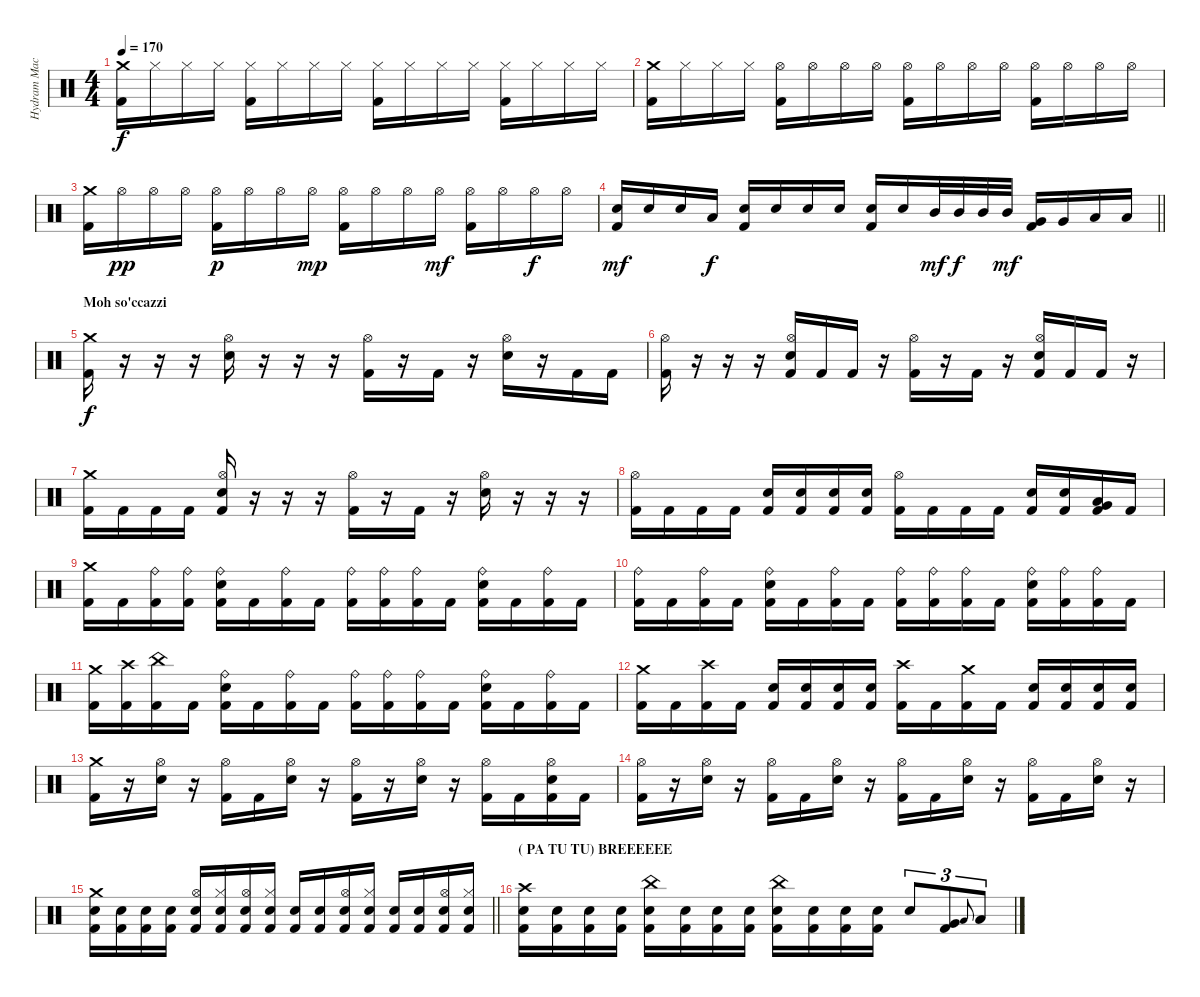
\track ("Hydram Machine" "Hydram Mac") {instrument percussion}
\staff {score}
\articulation defaults
\ts (4 4)
\tempo 170
\clef neutral
\ks c
("Crash medium (hit)" "Kick (hit) 2").16{dy f} "Hi-Hat (closed)".16 "Hi-Hat (closed)".16 "Hi-Hat (closed)".16 ("Hi-Hat (closed)" "Kick (hit) 2").16 "Hi-Hat (closed)".16 "Hi-Hat (closed)".16 "Hi-Hat (closed)".16 ("Hi-Hat (closed)" "Kick (hit) 2").16 "Hi-Hat (closed)".16 "Hi-Hat (closed)".16 "Hi-Hat (closed)".16 ("Hi-Hat (closed)" "Kick (hit) 2").16 "Hi-Hat (closed)".16 "Hi-Hat (closed)".16 "Hi-Hat (closed)".16 |
("Crash medium (hit)" "Kick (hit) 2").16 "Hi-Hat (closed)".16 "Hi-Hat (closed)".16 "Hi-Hat (closed)".16 ("Hi-Hat (open)" "Kick (hit) 2").16 "Hi-Hat (open)".16 "Hi-Hat (open)".16 "Hi-Hat (open)".16 ("Hi-Hat (open)" "Kick (hit) 2").16 "Hi-Hat (open)".16 "Hi-Hat (open)".16 "Hi-Hat (open)".16 ("Hi-Hat (open)" "Kick (hit) 2").16 "Hi-Hat (open)".16 "Hi-Hat (open)".16 "Hi-Hat (open)".16 |
("Crash medium (hit)" "Kick (hit) 2").16 "Hi-Hat (open)".16{dy pp} "Hi-Hat (open)".16 "Hi-Hat (open)".16 ("Hi-Hat (open)" "Kick (hit) 2").16{dy p} "Hi-Hat (open)".16 "Hi-Hat (open)".16 "Hi-Hat (open)".16{dy mp} ("Hi-Hat (open)" "Kick (hit) 2").16 "Hi-Hat (open)".16 "Hi-Hat (open)".16 "Hi-Hat (open)".16{dy mf} ("Hi-Hat (open)" "Kick (hit) 2").16 "Hi-Hat (open)".16 "Hi-Hat (open)".16{dy f} "Hi-Hat (open)".16 |
\barLineRight lightlight
("Electric Snare (hit)" "Kick (hit) 2").16{dy mf} "Electric Snare (hit)".16 "Electric Snare (hit)".16 "Low Tom (hit)".16{dy f} ("Electric Snare (hit)" "Kick (hit) 2").16 "Electric Snare (hit)".16 "Electric Snare (hit)".16 "Electric Snare (hit)".16 ("Electric Snare (hit)" "Kick (hit) 2").16 "Electric Snare (hit)".16 "Mid Tom (hit)".32{dy mf} "Mid Tom (hit)".32{dy f} "Mid Tom (hit)".32 "Mid Tom (hit)".32{dy mf} ("Very Low Tom (hit)" "Kick (hit) 2").16 "Very Low Tom (hit)".16 "Low Floor Tom (hit)".16 "Low Floor Tom (hit)".16 |
\section ("" "Moh so'ccazzi")
("Crash medium (hit)" "Kick (hit) 2").16{dy f} r.16 r.16 r.16 ("Hi-Hat (open)" "Electric Snare (hit)").16 r.16 r.16 r.16 ("Hi-Hat (open)" "Kick (hit) 2").16 r.16 "Kick (hit) 2".16 r.16 ("Hi-Hat (open)" "Electric Snare (hit)").16 r.16 "Kick (hit) 2".16 "Kick (hit) 2".16 |
("Hi-Hat (open)" "Kick (hit) 2").16 r.16 r.16 r.16 ("Hi-Hat (open)" "Electric Snare (hit)" "Kick (hit) 2").16 "Kick (hit) 2".16 "Kick (hit) 2".16 r.16 ("Hi-Hat (open)" "Kick (hit) 2").16 r.16 "Kick (hit) 2".16 r.16 ("Hi-Hat (open)" "Electric Snare (hit)" "Kick (hit) 2").16 "Kick (hit) 2".16 "Kick (hit) 2".16 r.16 |
("Crash medium (hit)" "Kick (hit) 2").16 "Kick (hit) 2".16 "Kick (hit) 2".16 "Kick (hit) 2".16 ("Hi-Hat (open)" "Electric Snare (hit)" "Kick (hit) 2").16 r.16 r.16 r.16 ("Hi-Hat (open)" "Kick (hit) 2").16 r.16 "Kick (hit) 2".16 r.16 ("Hi-Hat (open)" "Electric Snare (hit)").16 r.16 r.16 r.16 |
("Hi-Hat (open)" "Kick (hit) 2").16 "Kick (hit) 2".16 "Kick (hit) 2".16 "Kick (hit) 2".16 ("Electric Snare (hit)" "Kick (hit) 2").16 ("Electric Snare (hit)" "Kick (hit) 2").16 ("Electric Snare (hit)" "Kick (hit) 2").16 ("Electric Snare (hit)" "Kick (hit) 2").16 ("Hi-Hat (open)" "Kick (hit) 2").16 "Kick (hit) 2".16 "Kick (hit) 2".16 "Kick (hit) 2".16 ("Electric Snare (hit)" "Kick (hit) 2").16 ("Electric Snare (hit)" "Kick (hit) 2").16 ("Low Floor Tom (hit)" "Very Low Tom (hit)" "Kick (hit) 2").16 "Kick (hit) 2".16 |
("Crash medium (hit)" "Kick (hit) 2").16 "Kick (hit) 2".16 ("Ride (bell)" "Kick (hit) 2").16 ("Ride (bell)" "Kick (hit) 2").16 ("Ride (bell)" "Electric Snare (hit)" "Kick (hit) 2").16 "Kick (hit) 2".16 ("Ride (bell)" "Kick (hit) 2").16 "Kick (hit) 2".16 ("Ride (bell)" "Kick (hit) 2").16 ("Ride (bell)" "Kick (hit) 2").16 ("Ride (bell)" "Kick (hit) 2").16 "Kick (hit) 2".16 ("Ride (bell)" "Electric Snare (hit)" "Kick (hit) 2").16 "Kick (hit) 2".16 ("Ride (bell)" "Kick (hit) 2").16 "Kick (hit) 2".16 |
("Ride (bell)" "Kick (hit) 2").16 "Kick (hit) 2".16 ("Ride (bell)" "Kick (hit) 2").16 "Kick (hit) 2".16 ("Ride (bell)" "Electric Snare (hit)" "Kick (hit) 2").16 "Kick (hit) 2".16 ("Ride (bell)" "Kick (hit) 2").16 "Kick (hit) 2".16 ("Ride (bell)" "Kick (hit) 2").16 ("Ride (bell)" "Kick (hit) 2").16 ("Ride (bell)" "Kick (hit) 2").16 "Kick (hit) 2".16 ("Ride (bell)" "Electric Snare (hit)" "Kick (hit) 2").16 ("Ride (bell)" "Kick (hit) 2").16 ("Ride (bell)" "Kick (hit) 2").16 "Kick (hit) 2".16 |
("Crash medium (hit)" "Kick (hit) 2").16 ("Crash high (hit)" "Kick (hit) 2").16 ("China (hit)" "Kick (hit) 2").16 "Kick (hit) 2".16 ("Ride (bell)" "Electric Snare (hit)" "Kick (hit) 2").16 "Kick (hit) 2".16 ("Ride (bell)" "Kick (hit) 2").16 "Kick (hit) 2".16 ("Ride (bell)" "Kick (hit) 2").16 ("Ride (bell)" "Kick (hit) 2").16 ("Ride (bell)" "Kick (hit) 2").16 "Kick (hit) 2".16 ("Ride (bell)" "Electric Snare (hit)" "Kick (hit) 2").16 "Kick (hit) 2".16 ("Ride (bell)" "Kick (hit) 2").16 "Kick (hit) 2".16 |
("Crash medium (hit)" "Kick (hit) 2").16 "Kick (hit) 2".16 ("Crash high (hit)" "Kick (hit) 2").16 "Kick (hit) 2".16 ("Electric Snare (hit)" "Kick (hit) 2").16 ("Electric Snare (hit)" "Kick (hit) 2").16 ("Electric Snare (hit)" "Kick (hit) 2").16 ("Electric Snare (hit)" "Kick (hit) 2").16 ("Crash high (hit)" "Kick (hit) 2").16 "Kick (hit) 2".16 ("Crash medium (hit)" "Kick (hit) 2").16 "Kick (hit) 2".16 ("Electric Snare (hit)" "Kick (hit) 2").16 ("Electric Snare (hit)" "Kick (hit) 2").16 ("Electric Snare (hit)" "Kick (hit) 2").16 ("Electric Snare (hit)" "Kick (hit) 2").16 |
("Crash medium (hit)" "Kick (hit) 2").16 r.16 ("Hi-Hat (open)" "Electric Snare (hit)").16 r.16 ("Hi-Hat (open)" "Kick (hit) 2").16 "Kick (hit) 2".16 ("Hi-Hat (open)" "Electric Snare (hit)").16 r.16 ("Hi-Hat (open)" "Kick (hit) 2").16 r.16 ("Hi-Hat (open)" "Electric Snare (hit)").16 r.16 ("Hi-Hat (open)" "Kick (hit) 2").16 "Kick (hit) 2".16 ("Hi-Hat (open)" "Electric Snare (hit)" "Kick (hit) 2").16 "Kick (hit) 2".16 |
("Hi-Hat (open)" "Kick (hit) 2").16 r.16 ("Hi-Hat (open)" "Electric Snare (hit)").16 r.16 ("Hi-Hat (open)" "Kick (hit) 2").16 "Kick (hit) 2".16 ("Hi-Hat (open)" "Electric Snare (hit)").16 r.16 ("Hi-Hat (open)" "Kick (hit) 2").16 "Kick (hit) 2".16 ("Hi-Hat (open)" "Electric Snare (hit)").16 r.16 ("Hi-Hat (open)" "Kick (hit) 2").16 "Kick (hit) 2".16 ("Hi-Hat (open)" "Electric Snare (hit)").16 r.16 |
\barLineRight lightlight
("Crash medium (hit)" "Electric Snare (hit)" "Kick (hit) 2").16 ("Electric Snare (hit)" "Kick (hit) 2").16 ("Electric Snare (hit)" "Kick (hit) 2").16 ("Electric Snare (hit)" "Kick (hit) 2").16 ("Hi-Hat (open)" "Electric Snare (hit)" "Kick (hit) 2").16 ("Hi-Hat (closed)" "Electric Snare (hit)" "Kick (hit) 2").16 ("Hi-Hat (open)" "Electric Snare (hit)" "Kick (hit) 2").16 ("Hi-Hat (closed)" "Electric Snare (hit)" "Kick (hit) 2").16 ("Electric Snare (hit)" "Kick (hit) 2").16 ("Electric Snare (hit)" "Kick (hit) 2").16 ("Hi-Hat (open)" "Electric Snare (hit)" "Kick (hit) 2").16 ("Hi-Hat (closed)" "Electric Snare (hit)" "Kick (hit) 2").16 ("Electric Snare (hit)" "Kick (hit) 2").16 ("Electric Snare (hit)" "Kick (hit) 2").16 ("Hi-Hat (open)" "Electric Snare (hit)" "Kick (hit) 2").16 ("Hi-Hat (closed)" "Electric Snare (hit)" "Kick (hit) 2").16 |
\section ("" "( PA TU TU) BREEEEEE")
("Crash high (hit)" "Electric Snare (hit)" "Kick (hit) 2").16 ("Electric Snare (hit)" "Kick (hit) 2").16 ("Electric Snare (hit)" "Kick (hit) 2").16 ("Electric Snare (hit)" "Kick (hit) 2").16 ("China (hit)" "Electric Snare (hit)" "Kick (hit) 2").16 ("Electric Snare (hit)" "Kick (hit) 2").16 ("Electric Snare (hit)" "Kick (hit) 2").16 ("Electric Snare (hit)" "Kick (hit) 2").16 ("China (hit)" "Electric Snare (hit)" "Kick (hit) 2").16 ("Electric Snare (hit)" "Kick (hit) 2").16 ("Electric Snare (hit)" "Kick (hit) 2").16 ("Electric Snare (hit)" "Kick (hit) 2").16 "Electric Snare (hit)".8{tu (3 2)} ("Very Low Tom (hit)" "Kick (hit) 2").8{tu (3 2)} "Low Floor Tom (hit)".8{gr onbeat} "Low Floor Tom (hit)".8{tu (3 2)}
